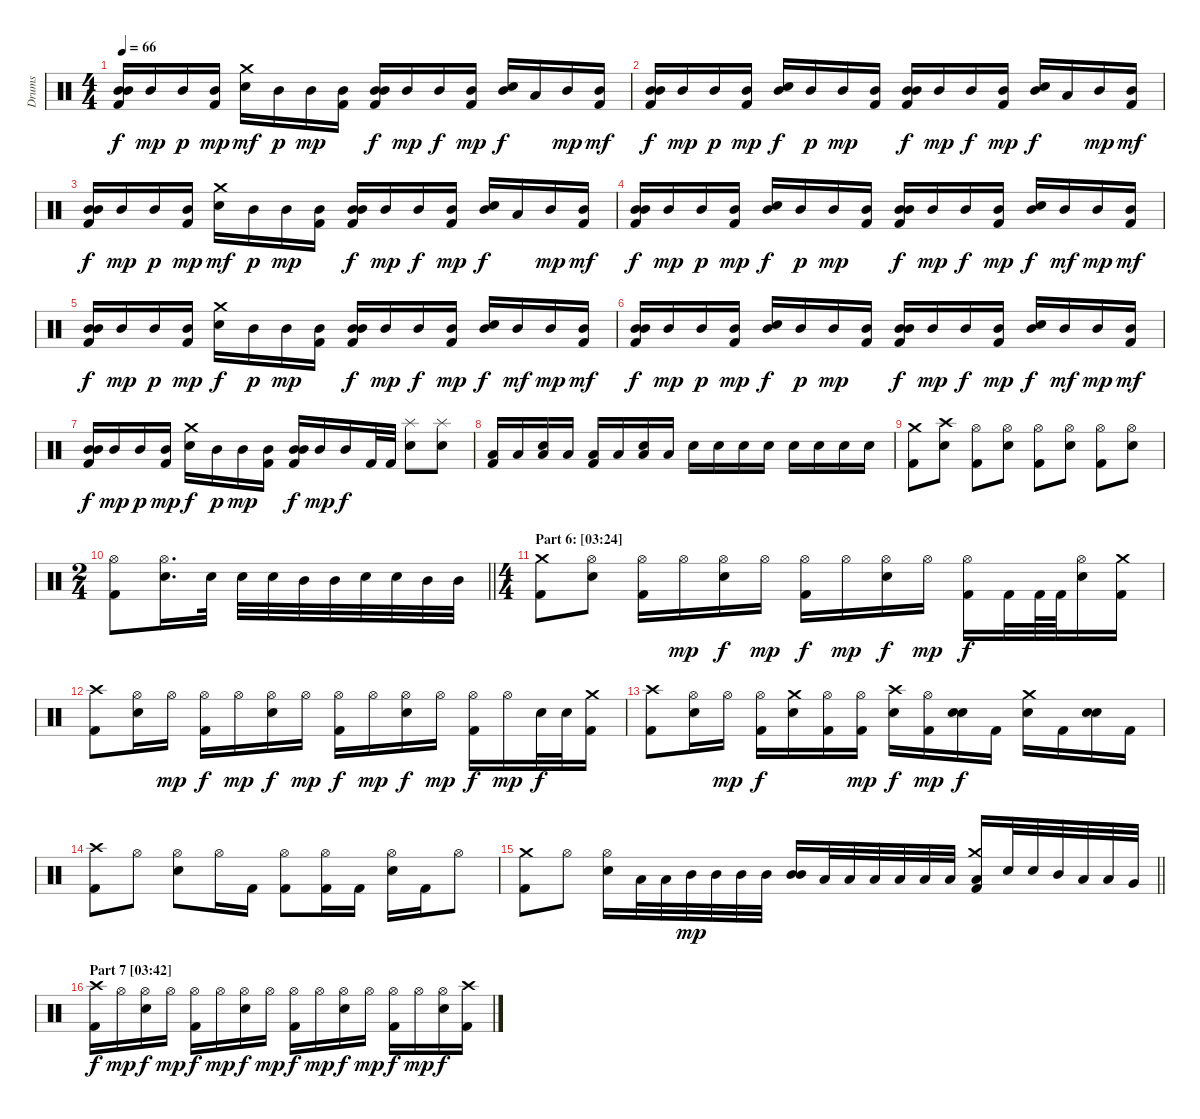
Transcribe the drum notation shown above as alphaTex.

\track ("Drums" "Drums") {instrument percussion}
\staff {score}
\articulation defaults
\ts (4 4)
\tempo 66
\clef neutral
\ks c
("Mid Tom (hit)" "Mid Tom (hit)" "Kick (hit) 2").16{dy f} "Mid Tom (hit)".16{dy mp} "Mid Tom (hit)".16{dy p} ("Mid Tom (hit)" "Kick (hit) 2").16{dy mp} ("Crash medium (hit)" "Electric Snare (hit)").16{dy mf} "Mid Tom (hit)".16{dy p} "Mid Tom (hit)".16{dy mp} ("Mid Tom (hit)" "Kick (hit) 2").16 ("Mid Tom (hit)" "Mid Tom (hit)" "Kick (hit) 2").16{dy f} "Mid Tom (hit)".16{dy mp} "Mid Tom (hit)".16{dy f} ("Mid Tom (hit)" "Kick (hit) 2").16{dy mp} ("Mid Tom (hit)" "Electric Snare (hit)").16{dy f} "Low Tom (hit)".16 "Mid Tom (hit)".16{dy mp} ("Mid Tom (hit)" "Kick (hit) 2").16{dy mf} |
("Mid Tom (hit)" "Mid Tom (hit)" "Kick (hit) 2").16{dy f} "Mid Tom (hit)".16{dy mp} "Mid Tom (hit)".16{dy p} ("Mid Tom (hit)" "Kick (hit) 2").16{dy mp} ("Mid Tom (hit)" "Electric Snare (hit)").16{dy f} "Mid Tom (hit)".16{dy p} "Mid Tom (hit)".16{dy mp} ("Mid Tom (hit)" "Kick (hit) 2").16 ("Mid Tom (hit)" "Mid Tom (hit)" "Kick (hit) 2").16{dy f} "Mid Tom (hit)".16{dy mp} "Mid Tom (hit)".16{dy f} ("Mid Tom (hit)" "Kick (hit) 2").16{dy mp} ("Mid Tom (hit)" "Electric Snare (hit)").16{dy f} "Low Tom (hit)".16 "Mid Tom (hit)".16{dy mp} ("Mid Tom (hit)" "Kick (hit) 2").16{dy mf} |
("Mid Tom (hit)" "Mid Tom (hit)" "Kick (hit) 2").16{dy f} "Mid Tom (hit)".16{dy mp} "Mid Tom (hit)".16{dy p} ("Mid Tom (hit)" "Kick (hit) 2").16{dy mp} ("Crash medium (hit)" "Electric Snare (hit)").16{dy mf} "Mid Tom (hit)".16{dy p} "Mid Tom (hit)".16{dy mp} ("Mid Tom (hit)" "Kick (hit) 2").16 ("Mid Tom (hit)" "Mid Tom (hit)" "Kick (hit) 2").16{dy f} "Mid Tom (hit)".16{dy mp} "Mid Tom (hit)".16{dy f} ("Mid Tom (hit)" "Kick (hit) 2").16{dy mp} ("Mid Tom (hit)" "Electric Snare (hit)").16{dy f} "Low Tom (hit)".16 "Mid Tom (hit)".16{dy mp} ("Mid Tom (hit)" "Kick (hit) 2").16{dy mf} |
("Mid Tom (hit)" "Mid Tom (hit)" "Kick (hit) 2").16{dy f} "Mid Tom (hit)".16{dy mp} "Mid Tom (hit)".16{dy p} ("Mid Tom (hit)" "Kick (hit) 2").16{dy mp} ("Mid Tom (hit)" "Electric Snare (hit)").16{dy f} "Mid Tom (hit)".16{dy p} "Mid Tom (hit)".16{dy mp} ("Mid Tom (hit)" "Kick (hit) 2").16 ("Mid Tom (hit)" "Mid Tom (hit)" "Kick (hit) 2").16{dy f} "Mid Tom (hit)".16{dy mp} "Mid Tom (hit)".16{dy f} ("Mid Tom (hit)" "Kick (hit) 2").16{dy mp} ("Mid Tom (hit)" "Electric Snare (hit)").16{dy f} "Mid Tom (hit)".16{dy mf} "Mid Tom (hit)".16{dy mp} ("Mid Tom (hit)" "Kick (hit) 2").16{dy mf} |
("Mid Tom (hit)" "Mid Tom (hit)" "Kick (hit) 2").16{dy f} "Mid Tom (hit)".16{dy mp} "Mid Tom (hit)".16{dy p} ("Mid Tom (hit)" "Kick (hit) 2").16{dy mp} ("Crash medium (hit)" "Electric Snare (hit)").16{dy f} "Mid Tom (hit)".16{dy p} "Mid Tom (hit)".16{dy mp} ("Mid Tom (hit)" "Kick (hit) 2").16 ("Mid Tom (hit)" "Mid Tom (hit)" "Kick (hit) 2").16{dy f} "Mid Tom (hit)".16{dy mp} "Mid Tom (hit)".16{dy f} ("Mid Tom (hit)" "Kick (hit) 2").16{dy mp} ("Mid Tom (hit)" "Electric Snare (hit)").16{dy f} "Mid Tom (hit)".16{dy mf} "Mid Tom (hit)".16{dy mp} ("Mid Tom (hit)" "Kick (hit) 2").16{dy mf} |
("Mid Tom (hit)" "Mid Tom (hit)" "Kick (hit) 2").16{dy f} "Mid Tom (hit)".16{dy mp} "Mid Tom (hit)".16{dy p} ("Mid Tom (hit)" "Kick (hit) 2").16{dy mp} ("Mid Tom (hit)" "Electric Snare (hit)").16{dy f} "Mid Tom (hit)".16{dy p} "Mid Tom (hit)".16{dy mp} ("Mid Tom (hit)" "Kick (hit) 2").16 ("Mid Tom (hit)" "Mid Tom (hit)" "Kick (hit) 2").16{dy f} "Mid Tom (hit)".16{dy mp} "Mid Tom (hit)".16{dy f} ("Mid Tom (hit)" "Kick (hit) 2").16{dy mp} ("Mid Tom (hit)" "Electric Snare (hit)").16{dy f} "Mid Tom (hit)".16{dy mf} "Mid Tom (hit)".16{dy mp} ("Mid Tom (hit)" "Kick (hit) 2").16{dy mf} |
("Mid Tom (hit)" "Mid Tom (hit)" "Kick (hit) 2").16{dy f} "Mid Tom (hit)".16{dy mp} "Mid Tom (hit)".16{dy p} ("Mid Tom (hit)" "Kick (hit) 2").16{dy mp} ("Crash medium (hit)" "Electric Snare (hit)").16{dy f} "Mid Tom (hit)".16{dy p} "Mid Tom (hit)".16{dy mp} ("Mid Tom (hit)" "Kick (hit) 2").16 ("Mid Tom (hit)" "Mid Tom (hit)" "Kick (hit) 2").16{dy f} "Mid Tom (hit)".16{dy mp} "Mid Tom (hit)".16{dy f} "Kick (hit) 2".32 "Kick (hit) 2".32 ("Splash (hit)" "Electric Snare (hit)").8 ("Splash (hit)" "Electric Snare (hit)").8 |
("Low Floor Tom (hit)" "Kick (hit) 2").16 "Low Floor Tom (hit)".16 ("Low Floor Tom (hit)" "Electric Snare (hit)").16 "Low Floor Tom (hit)".16 ("Low Floor Tom (hit)" "Kick (hit) 2").16 "Low Floor Tom (hit)".16 ("Low Floor Tom (hit)" "Electric Snare (hit)").16 "Low Floor Tom (hit)".16 "Electric Snare (hit)".16 "Electric Snare (hit)".16 "Electric Snare (hit)".16 "Electric Snare (hit)".16 "Electric Snare (hit)".16 "Electric Snare (hit)".16 "Electric Snare (hit)".16 "Electric Snare (hit)".16 |
("Crash medium (hit)" "Kick (hit) 2").8 ("Crash high (hit)" "Electric Snare (hit)").8 ("Hi-Hat (open)" "Kick (hit) 2").8 ("Hi-Hat (open)" "Electric Snare (hit)").8 ("Hi-Hat (open)" "Kick (hit) 2").8 ("Hi-Hat (open)" "Electric Snare (hit)").8 ("Hi-Hat (open)" "Kick (hit) 2").8 ("Hi-Hat (open)" "Electric Snare (hit)").8 |
\ts (2 4)
\barLineRight lightlight
("Hi-Hat (open)" "Kick (hit) 2").8 ("Hi-Hat (open)" "Electric Snare (hit)").16{d} "Electric Snare (hit)".32 "Electric Snare (hit)".32 "Electric Snare (hit)".32 "Mid Tom (hit)".32 "Mid Tom (hit)".32 "Electric Snare (hit)".32 "Electric Snare (hit)".32 "Mid Tom (hit)".32 "Mid Tom (hit)".32 |
\ts (4 4)
\section ("" "Part 6: [03:24]")
("Crash medium (hit)" "Kick (hit) 2").8 ("Hi-Hat (open)" "Electric Snare (hit)").8 ("Hi-Hat (open)" "Kick (hit) 2").16 "Hi-Hat (open)".16{dy mp} ("Hi-Hat (open)" "Electric Snare (hit)").16{dy f} "Hi-Hat (open)".16{dy mp} ("Hi-Hat (open)" "Kick (hit) 2").16{dy f} "Hi-Hat (open)".16{dy mp} ("Hi-Hat (open)" "Electric Snare (hit)").16{dy f} "Hi-Hat (open)".16{dy mp} ("Hi-Hat (open)" "Kick (hit) 2").16{dy f} "Kick (hit) 2".32 "Kick (hit) 2".64 "Kick (hit) 2".64 ("Hi-Hat (open)" "Electric Snare (hit)").16 ("Crash medium (hit)" "Kick (hit) 2").16 |
("Crash high (hit)" "Kick (hit) 2").8 ("Hi-Hat (open)" "Electric Snare (hit)").16 "Hi-Hat (open)".16{dy mp} ("Hi-Hat (open)" "Kick (hit) 2").16{dy f} "Hi-Hat (open)".16{dy mp} ("Hi-Hat (open)" "Electric Snare (hit)").16{dy f} "Hi-Hat (open)".16{dy mp} ("Hi-Hat (open)" "Kick (hit) 2").16{dy f} "Hi-Hat (open)".16{dy mp} ("Hi-Hat (open)" "Electric Snare (hit)").16{dy f} "Hi-Hat (open)".16{dy mp} ("Hi-Hat (open)" "Kick (hit) 2").16{dy f} "Hi-Hat (open)".16{dy mp} "Electric Snare (hit)".32{dy f} "Electric Snare (hit)".32 ("Crash medium (hit)" "Kick (hit) 2").16 |
("Crash high (hit)" "Kick (hit) 2").8 ("Hi-Hat (open)" "Electric Snare (hit)").16 "Hi-Hat (open)".16{dy mp} ("Hi-Hat (open)" "Kick (hit) 2").16{dy f} ("Crash medium (hit)" "Electric Snare (hit)").16 ("Hi-Hat (open)" "Kick (hit) 2").16 ("Hi-Hat (open)" "Kick (hit) 2").16{dy mp} ("Crash high (hit)" "Electric Snare (hit)").16{dy f} ("Hi-Hat (open)" "Kick (hit) 2").16{dy mp} ("Electric Snare (hit)" "Electric Snare (hit)").16{bd 120 dy f} "Kick (hit) 2".16 ("Crash medium (hit)" "Electric Snare (hit)").16 "Kick (hit) 2".16 ("Electric Snare (hit)" "Electric Snare (hit)").16{bd 120} "Kick (hit) 2".16 |
("Crash high (hit)" "Kick (hit) 2").8 "Hi-Hat (open)".8 ("Hi-Hat (open)" "Electric Snare (hit)").8 "Hi-Hat (open)".16 "Kick (hit) 2".16 ("Hi-Hat (open)" "Kick (hit) 2").8 ("Hi-Hat (open)" "Kick (hit) 2").16 "Kick (hit) 2".16 ("Hi-Hat (open)" "Electric Snare (hit)").16 "Kick (hit) 2".16 "Hi-Hat (open)".8 |
\barLineRight lightlight
("Crash medium (hit)" "Kick (hit) 2").8 "Hi-Hat (open)".8 ("Hi-Hat (open)" "Electric Snare (hit)").16 "Low Tom (hit)".32 "Low Tom (hit)".32 "Mid Tom (hit)".32{dy mp} "Mid Tom (hit)".32 "Mid Tom (hit)".32 "Mid Tom (hit)".32 ("Mid Tom (hit)" "Mid Tom (hit)").16 "Low Floor Tom (hit)".32 "Low Floor Tom (hit)".32 "Low Tom (hit)".32 "Low Tom (hit)".32 "Low Tom (hit)".32 "Low Tom (hit)".32 ("Crash medium (hit)" "Low Floor Tom (hit)" "Kick (hit) 2").16 "Electric Snare (hit)".32 "Electric Snare (hit)".32 "Mid Tom (hit)".32 "Low Tom (hit)".32 "Low Tom (hit)".32 "Very Low Tom (hit)".32 |
\section ("" "Part 7 [03:42]")
("Crash high (hit)" "Kick (hit) 2").16{dy f} "Hi-Hat (open)".16{dy mp} ("Hi-Hat (open)" "Electric Snare (hit)").16{dy f} "Hi-Hat (open)".16{dy mp} ("Hi-Hat (open)" "Kick (hit) 2").16{dy f} "Hi-Hat (open)".16{dy mp} ("Hi-Hat (open)" "Electric Snare (hit)").16{dy f} "Hi-Hat (open)".16{dy mp} ("Hi-Hat (open)" "Kick (hit) 2").16{dy f} "Hi-Hat (open)".16{dy mp} ("Hi-Hat (open)" "Electric Snare (hit)").16{dy f} "Hi-Hat (open)".16{dy mp} ("Hi-Hat (open)" "Kick (hit) 2").16{dy f} "Hi-Hat (open)".16{dy mp} ("Hi-Hat (open)" "Electric Snare (hit)").16{dy f} ("Crash high (hit)" "Kick (hit) 2").16
